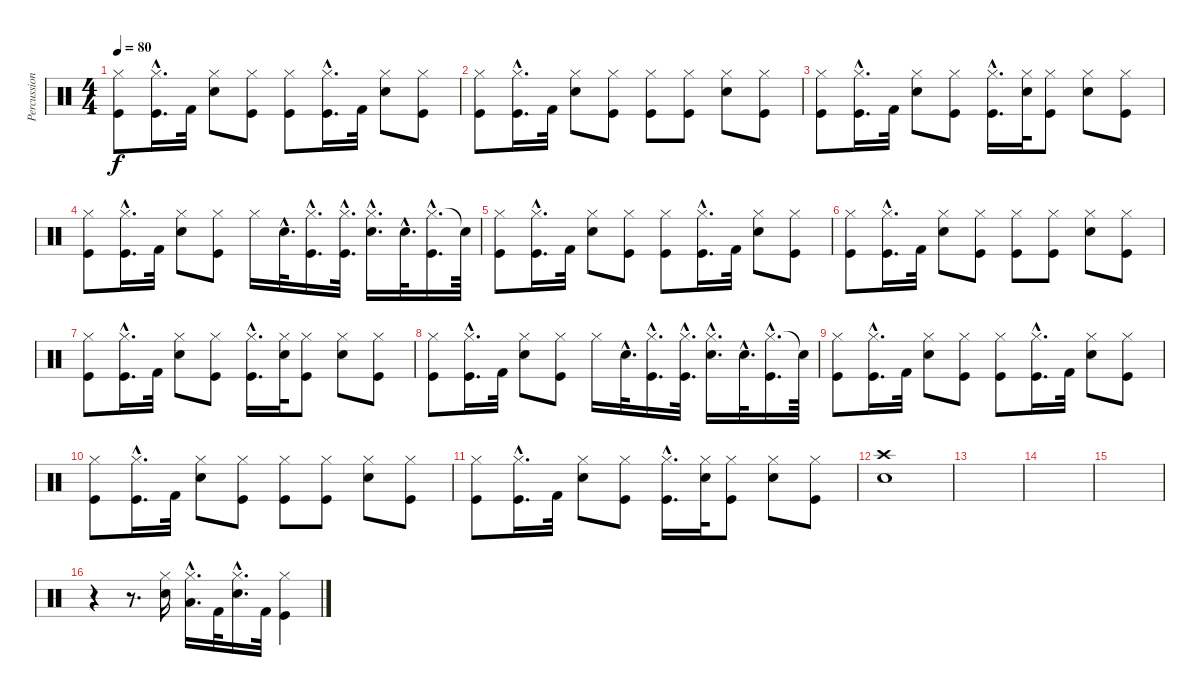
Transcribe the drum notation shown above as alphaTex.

\track ("Percussions" "Percussion") {instrument percussion}
\staff {score}
\articulation defaults
\ts (4 4)
\tempo 80
\clef neutral
\ks c
("Hi-Hat (closed)" "Kick (hit)").8{dy f} ("Hi-Hat (closed)"{hac} "Kick (hit)"{hac}).16{d} "Kick (hit) 2".32 ("Hi-Hat (closed)" "Snare (hit) 2").8 ("Hi-Hat (closed)" "Kick (hit)").8 ("Hi-Hat (closed)" "Kick (hit)").8 ("Hi-Hat (closed)"{hac} "Kick (hit)"{hac}).16{d} "Kick (hit) 2".32 ("Hi-Hat (closed)" "Snare (hit) 2").8 ("Hi-Hat (closed)" "Kick (hit)").8 |
("Hi-Hat (closed)" "Kick (hit)").8 ("Hi-Hat (closed)"{hac} "Kick (hit)"{hac}).16{d} "Kick (hit) 2".32 ("Hi-Hat (closed)" "Snare (hit) 2").8 ("Hi-Hat (closed)" "Kick (hit)").8 ("Hi-Hat (closed)" "Kick (hit)").8 ("Hi-Hat (closed)" "Kick (hit)").8 ("Hi-Hat (closed)" "Snare (hit) 2").8 ("Hi-Hat (closed)" "Kick (hit)").8 |
("Hi-Hat (closed)" "Kick (hit)").8 ("Hi-Hat (closed)"{hac} "Kick (hit)"{hac}).16{d} "Kick (hit) 2".32 ("Hi-Hat (closed)" "Snare (hit) 2").8 ("Hi-Hat (closed)" "Kick (hit)").8 ("Hi-Hat (closed)"{hac} "Kick (hit)"{hac}).16{d} ("Hi-Hat (closed)" "Snare (hit) 2").32 ("Hi-Hat (closed)" "Kick (hit)").8 ("Hi-Hat (closed)" "Snare (hit) 2").8 ("Hi-Hat (closed)" "Kick (hit)").8 |
("Hi-Hat (closed)" "Kick (hit)").8 ("Hi-Hat (closed)"{hac} "Kick (hit)"{hac}).16{d} "Kick (hit) 2".32 ("Hi-Hat (closed)" "Snare (hit) 2").8 ("Hi-Hat (closed)" "Kick (hit)").8 "Hi-Hat (closed)".16 "Snare (hit) 2"{hac}.32{d} ("Hi-Hat (closed)"{hac} "Kick (hit)"{hac}).16{d} ("Hi-Hat (closed)"{hac} "Kick (hit)"{hac}).32{d} ("Hi-Hat (closed)"{hac} "Snare (hit) 2"{hac}).16{d} "Snare (hit) 2"{hac}.32{d} ("Hi-Hat (closed)"{hac} "Kick (hit)"{hac}).16{d} "Snare (hit)"{t}.64 |
("Hi-Hat (closed)" "Kick (hit)").8 ("Hi-Hat (closed)"{hac} "Kick (hit)"{hac}).16{d} "Kick (hit) 2".32 ("Hi-Hat (closed)" "Snare (hit) 2").8 ("Hi-Hat (closed)" "Kick (hit)").8 ("Hi-Hat (closed)" "Kick (hit)").8 ("Hi-Hat (closed)"{hac} "Kick (hit)"{hac}).16{d} "Kick (hit) 2".32 ("Hi-Hat (closed)" "Snare (hit) 2").8 ("Hi-Hat (closed)" "Kick (hit)").8 |
("Hi-Hat (closed)" "Kick (hit)").8 ("Hi-Hat (closed)"{hac} "Kick (hit)"{hac}).16{d} "Kick (hit) 2".32 ("Hi-Hat (closed)" "Snare (hit) 2").8 ("Hi-Hat (closed)" "Kick (hit)").8 ("Hi-Hat (closed)" "Kick (hit)").8 ("Hi-Hat (closed)" "Kick (hit)").8 ("Hi-Hat (closed)" "Snare (hit) 2").8 ("Hi-Hat (closed)" "Kick (hit)").8 |
("Hi-Hat (closed)" "Kick (hit)").8 ("Hi-Hat (closed)"{hac} "Kick (hit)"{hac}).16{d} "Kick (hit) 2".32 ("Hi-Hat (closed)" "Snare (hit) 2").8 ("Hi-Hat (closed)" "Kick (hit)").8 ("Hi-Hat (closed)"{hac} "Kick (hit)"{hac}).16{d} ("Hi-Hat (closed)" "Snare (hit) 2").32 ("Hi-Hat (closed)" "Kick (hit)").8 ("Hi-Hat (closed)" "Snare (hit) 2").8 ("Hi-Hat (closed)" "Kick (hit)").8 |
("Hi-Hat (closed)" "Kick (hit)").8 ("Hi-Hat (closed)"{hac} "Kick (hit)"{hac}).16{d} "Kick (hit) 2".32 ("Hi-Hat (closed)" "Snare (hit) 2").8 ("Hi-Hat (closed)" "Kick (hit)").8 "Hi-Hat (closed)".16 "Snare (hit) 2"{hac}.32{d} ("Hi-Hat (closed)"{hac} "Kick (hit)"{hac}).16{d} ("Hi-Hat (closed)"{hac} "Kick (hit)"{hac}).32{d} ("Hi-Hat (closed)"{hac} "Snare (hit) 2"{hac}).16{d} "Snare (hit) 2"{hac}.32{d} ("Hi-Hat (closed)"{hac} "Kick (hit)"{hac}).16{d} "Snare (hit)"{t}.64 |
("Hi-Hat (closed)" "Kick (hit)").8 ("Hi-Hat (closed)"{hac} "Kick (hit)"{hac}).16{d} "Kick (hit) 2".32 ("Hi-Hat (closed)" "Snare (hit) 2").8 ("Hi-Hat (closed)" "Kick (hit)").8 ("Hi-Hat (closed)" "Kick (hit)").8 ("Hi-Hat (closed)"{hac} "Kick (hit)"{hac}).16{d} "Kick (hit) 2".32 ("Hi-Hat (closed)" "Snare (hit) 2").8 ("Hi-Hat (closed)" "Kick (hit)").8 |
("Hi-Hat (closed)" "Kick (hit)").8 ("Hi-Hat (closed)"{hac} "Kick (hit)"{hac}).16{d} "Kick (hit) 2".32 ("Hi-Hat (closed)" "Snare (hit) 2").8 ("Hi-Hat (closed)" "Kick (hit)").8 ("Hi-Hat (closed)" "Kick (hit)").8 ("Hi-Hat (closed)" "Kick (hit)").8 ("Hi-Hat (closed)" "Snare (hit) 2").8 ("Hi-Hat (closed)" "Kick (hit)").8 |
("Hi-Hat (closed)" "Kick (hit)").8 ("Hi-Hat (closed)"{hac} "Kick (hit)"{hac}).16{d} "Kick (hit) 2".32 ("Hi-Hat (closed)" "Snare (hit) 2").8 ("Hi-Hat (closed)" "Kick (hit)").8 ("Hi-Hat (closed)"{hac} "Kick (hit)"{hac}).16{d} ("Hi-Hat (closed)" "Snare (hit) 2").32 ("Hi-Hat (closed)" "Kick (hit)").8 ("Hi-Hat (closed)" "Snare (hit) 2").8 ("Hi-Hat (closed)" "Kick (hit)").8 |
("Crash high (hit)" "Snare (hit) 2").1 |
|
|
|
r.4 r.8{d} ("Hi-Hat (closed)" "Snare (hit) 2").16 ("Hi-Hat (closed)"{hac} "Low Floor Tom (hit)"{hac}).16{d} "Kick (hit) 2".32 ("Hi-Hat (closed)"{hac} "Snare (hit) 2"{hac}).16{d} "Kick (hit) 2".32 ("Hi-Hat (closed)" "Kick (hit)").4
